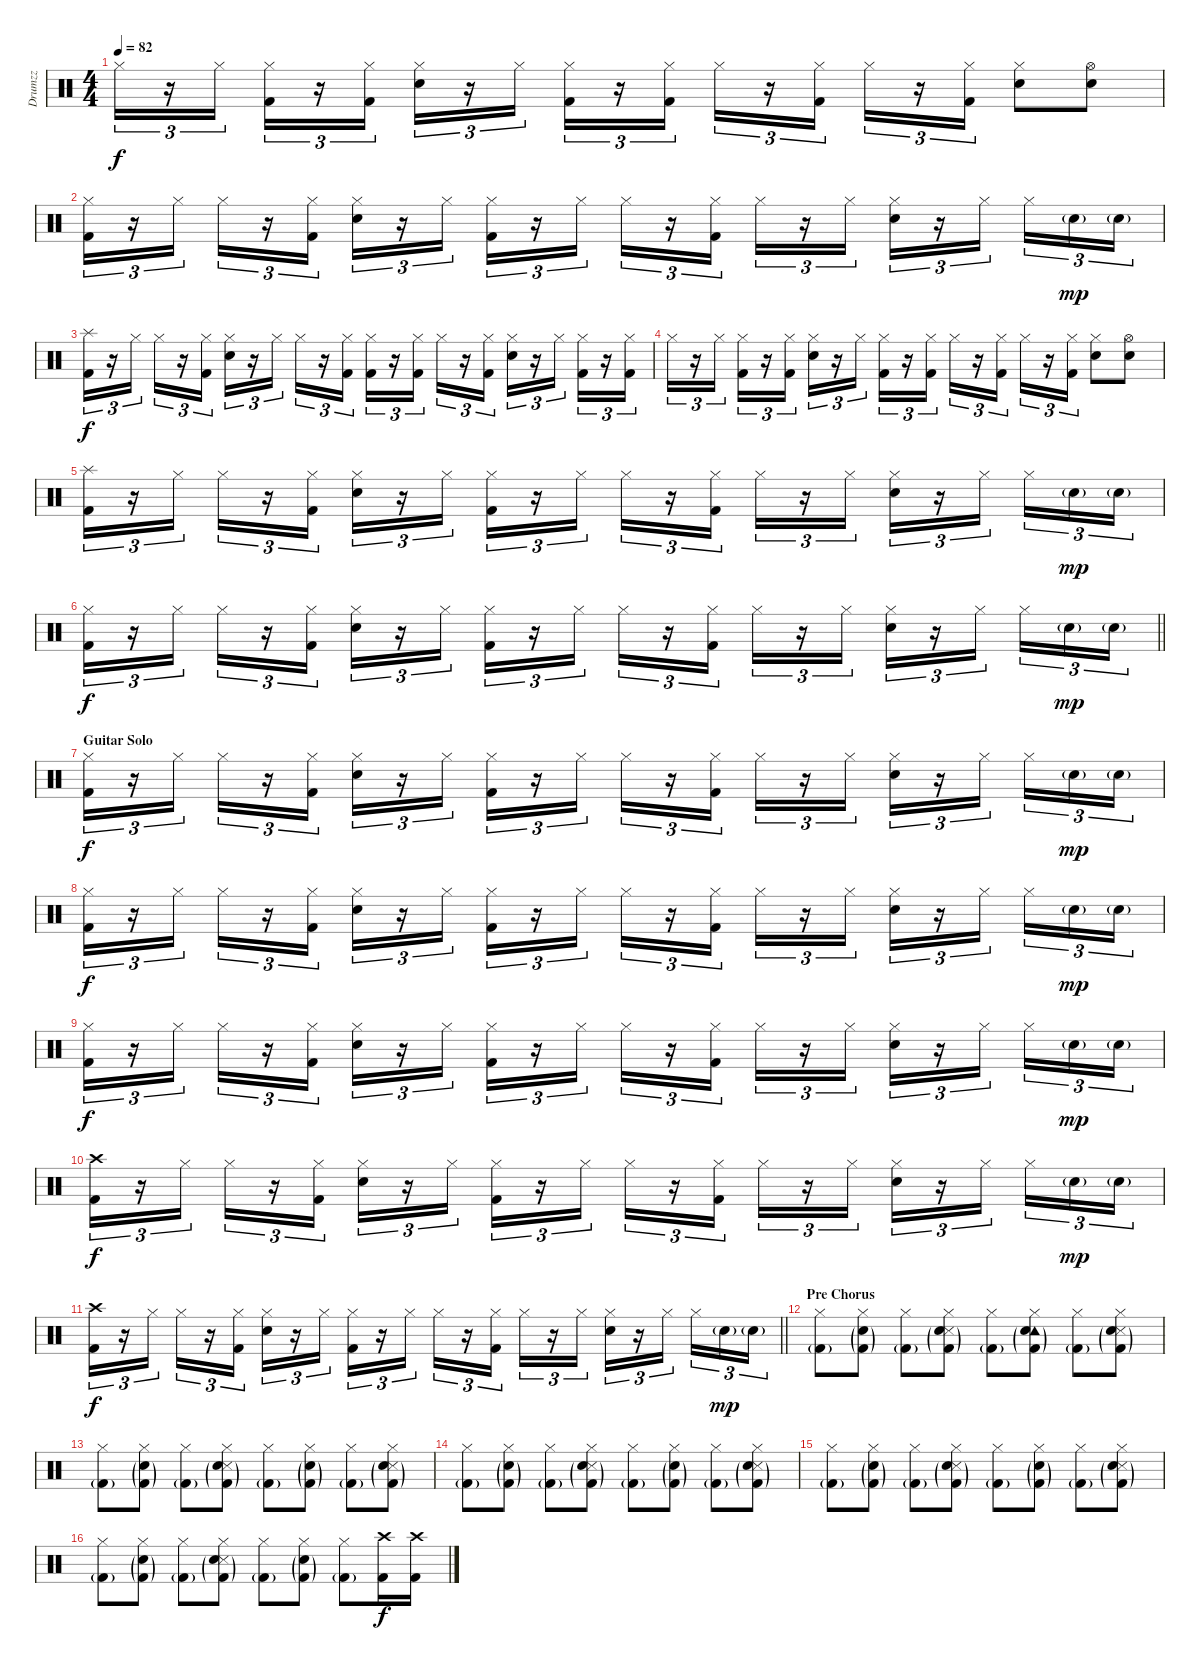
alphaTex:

\track ("Drumzz" "Drumzz") {instrument percussion}
\staff {score}
\articulation defaults
\ts (4 4)
\tempo 82
\clef neutral
\ks c "Hi-Hat (closed)".16{tu (3 2) dy f}
r.16{tu (3 2)} "Hi-Hat (closed)".16{tu (3 2)} ("Hi-Hat (closed)" "Kick (hit) 2").16{tu (3 2)} r.16{tu (3 2)} ("Hi-Hat (closed)" "Kick (hit) 2").16{tu (3 2)} ("Hi-Hat (closed)" "Snare (hit) 2").16{tu (3 2)} r.16{tu (3 2)} "Hi-Hat (closed)".16{tu (3 2)} ("Hi-Hat (closed)" "Kick (hit) 2").16{tu (3 2)} r.16{tu (3 2)} ("Hi-Hat (closed)" "Kick (hit) 2").16{tu (3 2)} "Hi-Hat (closed)".16{tu (3 2)} r.16{tu (3 2)} ("Hi-Hat (closed)" "Kick (hit) 2").16{tu (3 2)} "Hi-Hat (closed)".16{tu (3 2)} r.16{tu (3 2)} ("Hi-Hat (closed)" "Kick (hit) 2").16{tu (3 2)} ("Hi-Hat (closed)" "Snare (hit) 2").8 ("Hi-Hat (open)" "Snare (hit) 2").8 |
("Hi-Hat (closed)" "Kick (hit) 2").16{tu (3 2)} r.16{tu (3 2)} "Hi-Hat (closed)".16{tu (3 2)} "Hi-Hat (closed)".16{tu (3 2)} r.16{tu (3 2)} ("Hi-Hat (closed)" "Kick (hit) 2").16{tu (3 2)} ("Hi-Hat (closed)" "Snare (hit) 2").16{tu (3 2)} r.16{tu (3 2)} "Hi-Hat (closed)".16{tu (3 2)} ("Hi-Hat (closed)" "Kick (hit) 2").16{tu (3 2)} r.16{tu (3 2)} "Hi-Hat (closed)".16{tu (3 2)} "Hi-Hat (closed)".16{tu (3 2)} r.16{tu (3 2)} ("Hi-Hat (closed)" "Kick (hit) 2").16{tu (3 2)} "Hi-Hat (closed)".16{tu (3 2)} r.16{tu (3 2)} "Hi-Hat (closed)".16{tu (3 2)} ("Hi-Hat (closed)" "Snare (hit) 2").16{tu (3 2)} r.16{tu (3 2)} "Hi-Hat (closed)".16{tu (3 2) beam splitsecondary} "Hi-Hat (closed)".16{tu (3 2)} "Snare (hit) 2"{g}.16{tu (3 2) dy mp} "Snare (hit) 2"{g}.16{tu (3 2)} |
("Splash (hit)" "Kick (hit) 2").16{tu (3 2) dy f} r.16{tu (3 2)} "Hi-Hat (closed)".16{tu (3 2)} "Hi-Hat (closed)".16{tu (3 2)} r.16{tu (3 2)} ("Hi-Hat (closed)" "Kick (hit) 2").16{tu (3 2)} ("Hi-Hat (closed)" "Snare (hit) 2").16{tu (3 2)} r.16{tu (3 2)} "Hi-Hat (closed)".16{tu (3 2)} "Hi-Hat (closed)".16{tu (3 2)} r.16{tu (3 2)} ("Hi-Hat (closed)" "Kick (hit) 2").16{tu (3 2)} ("Hi-Hat (closed)" "Kick (hit) 2").16{tu (3 2)} r.16{tu (3 2)} ("Hi-Hat (closed)" "Kick (hit) 2").16{tu (3 2)} "Hi-Hat (closed)".16{tu (3 2)} r.16{tu (3 2)} ("Hi-Hat (closed)" "Kick (hit) 2").16{tu (3 2)} ("Hi-Hat (closed)" "Snare (hit) 2").16{tu (3 2)} r.16{tu (3 2)} "Hi-Hat (closed)".16{tu (3 2)} ("Hi-Hat (closed)" "Kick (hit) 2").16{tu (3 2)} r.16{tu (3 2)} ("Hi-Hat (closed)" "Kick (hit) 2").16{tu (3 2)} |
"Hi-Hat (closed)".16{tu (3 2)} r.16{tu (3 2)} "Hi-Hat (closed)".16{tu (3 2)} ("Hi-Hat (closed)" "Kick (hit) 2").16{tu (3 2)} r.16{tu (3 2)} ("Hi-Hat (closed)" "Kick (hit) 2").16{tu (3 2)} ("Hi-Hat (closed)" "Snare (hit) 2").16{tu (3 2)} r.16{tu (3 2)} "Hi-Hat (closed)".16{tu (3 2)} ("Hi-Hat (closed)" "Kick (hit) 2").16{tu (3 2)} r.16{tu (3 2)} ("Hi-Hat (closed)" "Kick (hit) 2").16{tu (3 2)} "Hi-Hat (closed)".16{tu (3 2)} r.16{tu (3 2)} ("Hi-Hat (closed)" "Kick (hit) 2").16{tu (3 2)} "Hi-Hat (closed)".16{tu (3 2)} r.16{tu (3 2)} ("Hi-Hat (closed)" "Kick (hit) 2").16{tu (3 2)} ("Hi-Hat (closed)" "Snare (hit) 2").8 ("Hi-Hat (open)" "Snare (hit) 2").8 |
("Splash (hit)" "Kick (hit) 2").16{tu (3 2)} r.16{tu (3 2)} "Hi-Hat (closed)".16{tu (3 2)} "Hi-Hat (closed)".16{tu (3 2)} r.16{tu (3 2)} ("Hi-Hat (closed)" "Kick (hit) 2").16{tu (3 2)} ("Hi-Hat (closed)" "Snare (hit) 2").16{tu (3 2)} r.16{tu (3 2)} "Hi-Hat (closed)".16{tu (3 2)} ("Hi-Hat (closed)" "Kick (hit) 2").16{tu (3 2)} r.16{tu (3 2)} "Hi-Hat (closed)".16{tu (3 2)} "Hi-Hat (closed)".16{tu (3 2)} r.16{tu (3 2)} ("Hi-Hat (closed)" "Kick (hit) 2").16{tu (3 2)} "Hi-Hat (closed)".16{tu (3 2)} r.16{tu (3 2)} "Hi-Hat (closed)".16{tu (3 2)} ("Hi-Hat (closed)" "Snare (hit) 2").16{tu (3 2)} r.16{tu (3 2)} "Hi-Hat (closed)".16{tu (3 2) beam splitsecondary} "Hi-Hat (closed)".16{tu (3 2)} "Snare (hit) 2"{g}.16{tu (3 2) dy mp} "Snare (hit) 2"{g}.16{tu (3 2)} |
\barLineRight lightlight
("Hi-Hat (closed)" "Kick (hit) 2").16{tu (3 2) dy f} r.16{tu (3 2)} "Hi-Hat (closed)".16{tu (3 2)} "Hi-Hat (closed)".16{tu (3 2)} r.16{tu (3 2)} ("Hi-Hat (closed)" "Kick (hit) 2").16{tu (3 2)} ("Hi-Hat (closed)" "Snare (hit) 2").16{tu (3 2)} r.16{tu (3 2)} "Hi-Hat (closed)".16{tu (3 2)} ("Hi-Hat (closed)" "Kick (hit) 2").16{tu (3 2)} r.16{tu (3 2)} "Hi-Hat (closed)".16{tu (3 2)} "Hi-Hat (closed)".16{tu (3 2)} r.16{tu (3 2)} ("Hi-Hat (closed)" "Kick (hit) 2").16{tu (3 2)} "Hi-Hat (closed)".16{tu (3 2)} r.16{tu (3 2)} "Hi-Hat (closed)".16{tu (3 2)} ("Hi-Hat (closed)" "Snare (hit) 2").16{tu (3 2)} r.16{tu (3 2)} "Hi-Hat (closed)".16{tu (3 2) beam splitsecondary} "Hi-Hat (closed)".16{tu (3 2)} "Snare (hit) 2"{g}.16{tu (3 2) dy mp} "Snare (hit) 2"{g}.16{tu (3 2)} |
\section ("" "Guitar Solo")
("Hi-Hat (closed)" "Kick (hit) 2").16{tu (3 2) dy f} r.16{tu (3 2)} "Hi-Hat (closed)".16{tu (3 2)} "Hi-Hat (closed)".16{tu (3 2)} r.16{tu (3 2)} ("Hi-Hat (closed)" "Kick (hit) 2").16{tu (3 2)} ("Hi-Hat (closed)" "Snare (hit) 2").16{tu (3 2)} r.16{tu (3 2)} "Hi-Hat (closed)".16{tu (3 2)} ("Hi-Hat (closed)" "Kick (hit) 2").16{tu (3 2)} r.16{tu (3 2)} "Hi-Hat (closed)".16{tu (3 2)} "Hi-Hat (closed)".16{tu (3 2)} r.16{tu (3 2)} ("Hi-Hat (closed)" "Kick (hit) 2").16{tu (3 2)} "Hi-Hat (closed)".16{tu (3 2)} r.16{tu (3 2)} "Hi-Hat (closed)".16{tu (3 2)} ("Hi-Hat (closed)" "Snare (hit) 2").16{tu (3 2)} r.16{tu (3 2)} "Hi-Hat (closed)".16{tu (3 2) beam splitsecondary} "Hi-Hat (closed)".16{tu (3 2)} "Snare (hit) 2"{g}.16{tu (3 2) dy mp} "Snare (hit) 2"{g}.16{tu (3 2)} |
("Hi-Hat (closed)" "Kick (hit) 2").16{tu (3 2) dy f} r.16{tu (3 2)} "Hi-Hat (closed)".16{tu (3 2)} "Hi-Hat (closed)".16{tu (3 2)} r.16{tu (3 2)} ("Hi-Hat (closed)" "Kick (hit) 2").16{tu (3 2)} ("Hi-Hat (closed)" "Snare (hit) 2").16{tu (3 2)} r.16{tu (3 2)} "Hi-Hat (closed)".16{tu (3 2)} ("Hi-Hat (closed)" "Kick (hit) 2").16{tu (3 2)} r.16{tu (3 2)} "Hi-Hat (closed)".16{tu (3 2)} "Hi-Hat (closed)".16{tu (3 2)} r.16{tu (3 2)} ("Hi-Hat (closed)" "Kick (hit) 2").16{tu (3 2)} "Hi-Hat (closed)".16{tu (3 2)} r.16{tu (3 2)} "Hi-Hat (closed)".16{tu (3 2)} ("Hi-Hat (closed)" "Snare (hit) 2").16{tu (3 2)} r.16{tu (3 2)} "Hi-Hat (closed)".16{tu (3 2) beam splitsecondary} "Hi-Hat (closed)".16{tu (3 2)} "Snare (hit) 2"{g}.16{tu (3 2) dy mp} "Snare (hit) 2"{g}.16{tu (3 2)} |
("Hi-Hat (closed)" "Kick (hit) 2").16{tu (3 2) dy f} r.16{tu (3 2)} "Hi-Hat (closed)".16{tu (3 2)} "Hi-Hat (closed)".16{tu (3 2)} r.16{tu (3 2)} ("Hi-Hat (closed)" "Kick (hit) 2").16{tu (3 2)} ("Hi-Hat (closed)" "Snare (hit) 2").16{tu (3 2)} r.16{tu (3 2)} "Hi-Hat (closed)".16{tu (3 2)} ("Hi-Hat (closed)" "Kick (hit) 2").16{tu (3 2)} r.16{tu (3 2)} "Hi-Hat (closed)".16{tu (3 2)} "Hi-Hat (closed)".16{tu (3 2)} r.16{tu (3 2)} ("Hi-Hat (closed)" "Kick (hit) 2").16{tu (3 2)} "Hi-Hat (closed)".16{tu (3 2)} r.16{tu (3 2)} "Hi-Hat (closed)".16{tu (3 2)} ("Hi-Hat (closed)" "Snare (hit) 2").16{tu (3 2)} r.16{tu (3 2)} "Hi-Hat (closed)".16{tu (3 2) beam splitsecondary} "Hi-Hat (closed)".16{tu (3 2)} "Snare (hit) 2"{g}.16{tu (3 2) dy mp} "Snare (hit) 2"{g}.16{tu (3 2)} |
("Crash high (hit)" "Kick (hit) 2").16{tu (3 2) dy f} r.16{tu (3 2)} "Hi-Hat (closed)".16{tu (3 2)} "Hi-Hat (closed)".16{tu (3 2)} r.16{tu (3 2)} ("Hi-Hat (closed)" "Kick (hit) 2").16{tu (3 2)} ("Hi-Hat (closed)" "Snare (hit) 2").16{tu (3 2)} r.16{tu (3 2)} "Hi-Hat (closed)".16{tu (3 2)} ("Hi-Hat (closed)" "Kick (hit) 2").16{tu (3 2)} r.16{tu (3 2)} "Hi-Hat (closed)".16{tu (3 2)} "Hi-Hat (closed)".16{tu (3 2)} r.16{tu (3 2)} ("Hi-Hat (closed)" "Kick (hit) 2").16{tu (3 2)} "Hi-Hat (closed)".16{tu (3 2)} r.16{tu (3 2)} "Hi-Hat (closed)".16{tu (3 2)} ("Hi-Hat (closed)" "Snare (hit) 2").16{tu (3 2)} r.16{tu (3 2)} "Hi-Hat (closed)".16{tu (3 2) beam splitsecondary} "Hi-Hat (closed)".16{tu (3 2)} "Snare (hit) 2"{g}.16{tu (3 2) dy mp} "Snare (hit) 2"{g}.16{tu (3 2)} |
\barLineRight lightlight
("Crash high (hit)" "Kick (hit) 2").16{tu (3 2) dy f} r.16{tu (3 2)} "Hi-Hat (closed)".16{tu (3 2)} "Hi-Hat (closed)".16{tu (3 2)} r.16{tu (3 2)} ("Hi-Hat (closed)" "Kick (hit) 2").16{tu (3 2)} ("Hi-Hat (closed)" "Snare (hit) 2").16{tu (3 2)} r.16{tu (3 2)} "Hi-Hat (closed)".16{tu (3 2)} ("Hi-Hat (closed)" "Kick (hit) 2").16{tu (3 2)} r.16{tu (3 2)} "Hi-Hat (closed)".16{tu (3 2)} "Hi-Hat (closed)".16{tu (3 2)} r.16{tu (3 2)} ("Hi-Hat (closed)" "Kick (hit) 2").16{tu (3 2)} "Hi-Hat (closed)".16{tu (3 2)} r.16{tu (3 2)} "Hi-Hat (closed)".16{tu (3 2)} ("Hi-Hat (closed)" "Snare (hit) 2").16{tu (3 2)} r.16{tu (3 2)} "Hi-Hat (closed)".16{tu (3 2) beam splitsecondary} "Hi-Hat (closed)".16{tu (3 2)} "Snare (hit) 2"{g}.16{tu (3 2) dy mp} "Snare (hit) 2"{g}.16{tu (3 2)} |
\section ("" "Pre Chorus")
("Hi-Hat (closed)" "Kick (hit) 2"{g}).8 ("Hi-Hat (closed)" "Snare (hit) 2"{g} "Kick (hit) 2"{g}).8 ("Hi-Hat (closed)" "Kick (hit) 2"{g}).8 ("Snare (side stick) 3" "Hi-Hat (closed)" "Snare (hit) 2"{g} "Kick (hit) 2"{g}).8 ("Hi-Hat (closed)" "Kick (hit) 2"{g}).8 ("Tambourine (hit)" "Hi-Hat (closed)" "Snare (hit) 2"{g} "Kick (hit) 2"{g}).8 ("Hi-Hat (closed)" "Kick (hit) 2"{g}).8 ("Snare (side stick) 3" "Hi-Hat (closed)" "Snare (hit) 2"{g} "Kick (hit) 2"{g}).8 |
("Hi-Hat (closed)" "Kick (hit) 2"{g}).8 ("Hi-Hat (closed)" "Snare (hit) 2"{g} "Kick (hit) 2"{g}).8 ("Hi-Hat (closed)" "Kick (hit) 2"{g}).8 ("Snare (side stick) 3" "Hi-Hat (closed)" "Snare (hit) 2"{g} "Kick (hit) 2"{g}).8 ("Hi-Hat (closed)" "Kick (hit) 2"{g}).8 ("Hi-Hat (closed)" "Snare (hit) 2"{g} "Kick (hit) 2"{g}).8 ("Hi-Hat (closed)" "Kick (hit) 2"{g}).8 ("Snare (side stick) 3" "Hi-Hat (closed)" "Snare (hit) 2"{g} "Kick (hit) 2"{g}).8 |
("Hi-Hat (closed)" "Kick (hit) 2"{g}).8 ("Hi-Hat (closed)" "Snare (hit) 2"{g} "Kick (hit) 2"{g}).8 ("Hi-Hat (closed)" "Kick (hit) 2"{g}).8 ("Snare (side stick) 3" "Hi-Hat (closed)" "Snare (hit) 2"{g} "Kick (hit) 2"{g}).8 ("Hi-Hat (closed)" "Kick (hit) 2"{g}).8 ("Hi-Hat (closed)" "Snare (hit) 2"{g} "Kick (hit) 2"{g}).8 ("Hi-Hat (closed)" "Kick (hit) 2"{g}).8 ("Snare (side stick) 3" "Hi-Hat (closed)" "Snare (hit) 2"{g} "Kick (hit) 2"{g}).8 |
("Hi-Hat (closed)" "Kick (hit) 2"{g}).8 ("Hi-Hat (closed)" "Snare (hit) 2"{g} "Kick (hit) 2"{g}).8 ("Hi-Hat (closed)" "Kick (hit) 2"{g}).8 ("Snare (side stick) 3" "Hi-Hat (closed)" "Snare (hit) 2"{g} "Kick (hit) 2"{g}).8 ("Hi-Hat (closed)" "Kick (hit) 2"{g}).8 ("Hi-Hat (closed)" "Snare (hit) 2"{g} "Kick (hit) 2"{g}).8 ("Hi-Hat (closed)" "Kick (hit) 2"{g}).8 ("Snare (side stick) 3" "Hi-Hat (closed)" "Snare (hit) 2"{g} "Kick (hit) 2"{g}).8 |
("Hi-Hat (closed)" "Kick (hit) 2"{g}).8 ("Hi-Hat (closed)" "Snare (hit) 2"{g} "Kick (hit) 2"{g}).8 ("Hi-Hat (closed)" "Kick (hit) 2"{g}).8 ("Snare (side stick) 3" "Hi-Hat (closed)" "Snare (hit) 2"{g} "Kick (hit) 2"{g}).8 ("Hi-Hat (closed)" "Kick (hit) 2"{g}).8 ("Hi-Hat (closed)" "Snare (hit) 2"{g} "Kick (hit) 2"{g}).8 ("Hi-Hat (closed)" "Kick (hit) 2"{g}).8 ("Crash high (hit)" "Kick (hit) 2").16{dy f} ("Crash high (hit)" "Kick (hit) 2").16
